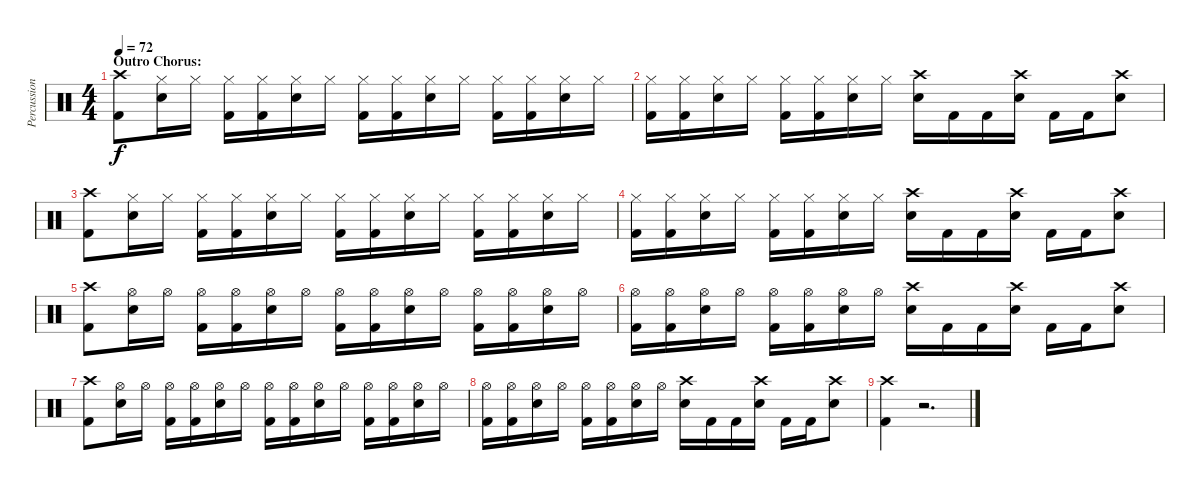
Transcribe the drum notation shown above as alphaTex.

\track ("Percussion" "Percussion") {instrument percussion}
\staff {score}
\articulation defaults
\ts (4 4)
\section ("" "Outro Chorus:")
\tempo 72
\clef neutral
\ks c
("Crash high (hit)" "Kick (hit) 2").8{dy f} ("Hi-Hat (closed)" "Electric Snare (hit)").16 "Hi-Hat (closed)".16 ("Hi-Hat (closed)" "Kick (hit) 2").16 ("Hi-Hat (closed)" "Kick (hit) 2").16 ("Hi-Hat (closed)" "Electric Snare (hit)").16 "Hi-Hat (closed)".16 ("Hi-Hat (closed)" "Kick (hit) 2").16 ("Hi-Hat (closed)" "Kick (hit) 2").16 ("Hi-Hat (closed)" "Electric Snare (hit)").16 "Hi-Hat (closed)".16 ("Hi-Hat (closed)" "Kick (hit) 2").16 ("Hi-Hat (closed)" "Kick (hit) 2").16 ("Hi-Hat (closed)" "Electric Snare (hit)").16 "Hi-Hat (closed)".16 |
("Hi-Hat (closed)" "Kick (hit) 2").16 ("Hi-Hat (closed)" "Kick (hit) 2").16 ("Hi-Hat (closed)" "Electric Snare (hit)").16 "Hi-Hat (closed)".16 ("Hi-Hat (closed)" "Kick (hit) 2").16 ("Hi-Hat (closed)" "Kick (hit) 2").16 ("Hi-Hat (closed)" "Electric Snare (hit)").16 "Hi-Hat (closed)".16 ("Crash high (hit)" "Electric Snare (hit)").16 "Kick (hit) 2".16 "Kick (hit) 2".16 ("Crash high (hit)" "Electric Snare (hit)").16 "Kick (hit) 2".16 "Kick (hit) 2".16 ("Crash high (hit)" "Electric Snare (hit)").8 |
("Crash high (hit)" "Kick (hit) 2").8 ("Hi-Hat (closed)" "Electric Snare (hit)").16 "Hi-Hat (closed)".16 ("Hi-Hat (closed)" "Kick (hit) 2").16 ("Hi-Hat (closed)" "Kick (hit) 2").16 ("Hi-Hat (closed)" "Electric Snare (hit)").16 "Hi-Hat (closed)".16 ("Hi-Hat (closed)" "Kick (hit) 2").16 ("Hi-Hat (closed)" "Kick (hit) 2").16 ("Hi-Hat (closed)" "Electric Snare (hit)").16 "Hi-Hat (closed)".16 ("Hi-Hat (closed)" "Kick (hit) 2").16 ("Hi-Hat (closed)" "Kick (hit) 2").16 ("Hi-Hat (closed)" "Electric Snare (hit)").16 "Hi-Hat (closed)".16 |
("Hi-Hat (closed)" "Kick (hit) 2").16 ("Hi-Hat (closed)" "Kick (hit) 2").16 ("Hi-Hat (closed)" "Electric Snare (hit)").16 "Hi-Hat (closed)".16 ("Hi-Hat (closed)" "Kick (hit) 2").16 ("Hi-Hat (closed)" "Kick (hit) 2").16 ("Hi-Hat (closed)" "Electric Snare (hit)").16 "Hi-Hat (closed)".16 ("Crash high (hit)" "Electric Snare (hit)").16 "Kick (hit) 2".16 "Kick (hit) 2".16 ("Crash high (hit)" "Electric Snare (hit)").16 "Kick (hit) 2".16 "Kick (hit) 2".16 ("Crash high (hit)" "Electric Snare (hit)").8 |
("Crash high (hit)" "Kick (hit) 2").8 ("Hi-Hat (open)" "Electric Snare (hit)").16 "Hi-Hat (open)".16 ("Hi-Hat (open)" "Kick (hit) 2").16 ("Hi-Hat (open)" "Kick (hit) 2").16 ("Hi-Hat (open)" "Electric Snare (hit)").16 "Hi-Hat (open)".16 ("Hi-Hat (open)" "Kick (hit) 2").16 ("Hi-Hat (open)" "Kick (hit) 2").16 ("Hi-Hat (open)" "Electric Snare (hit)").16 "Hi-Hat (open)".16 ("Hi-Hat (open)" "Kick (hit) 2").16 ("Hi-Hat (open)" "Kick (hit) 2").16 ("Hi-Hat (open)" "Electric Snare (hit)").16 "Hi-Hat (open)".16 |
("Hi-Hat (open)" "Kick (hit) 2").16 ("Hi-Hat (open)" "Kick (hit) 2").16 ("Hi-Hat (open)" "Electric Snare (hit)").16 "Hi-Hat (open)".16 ("Hi-Hat (open)" "Kick (hit) 2").16 ("Hi-Hat (open)" "Kick (hit) 2").16 ("Hi-Hat (open)" "Electric Snare (hit)").16 "Hi-Hat (open)".16 ("Crash high (hit)" "Electric Snare (hit)").16 "Kick (hit) 2".16 "Kick (hit) 2".16 ("Crash high (hit)" "Electric Snare (hit)").16 "Kick (hit) 2".16 "Kick (hit) 2".16 ("Crash high (hit)" "Electric Snare (hit)").8 |
("Crash high (hit)" "Kick (hit) 2").8 ("Hi-Hat (open)" "Electric Snare (hit)").16 "Hi-Hat (open)".16 ("Hi-Hat (open)" "Kick (hit) 2").16 ("Hi-Hat (open)" "Kick (hit) 2").16 ("Hi-Hat (open)" "Electric Snare (hit)").16 "Hi-Hat (open)".16 ("Hi-Hat (open)" "Kick (hit) 2").16 ("Hi-Hat (open)" "Kick (hit) 2").16 ("Hi-Hat (open)" "Electric Snare (hit)").16 "Hi-Hat (open)".16 ("Hi-Hat (open)" "Kick (hit) 2").16 ("Hi-Hat (open)" "Kick (hit) 2").16 ("Hi-Hat (open)" "Electric Snare (hit)").16 "Hi-Hat (open)".16 |
("Hi-Hat (open)" "Kick (hit) 2").16 ("Hi-Hat (open)" "Kick (hit) 2").16 ("Hi-Hat (open)" "Electric Snare (hit)").16 "Hi-Hat (open)".16 ("Hi-Hat (open)" "Kick (hit) 2").16 ("Hi-Hat (open)" "Kick (hit) 2").16 ("Hi-Hat (open)" "Electric Snare (hit)").16 "Hi-Hat (open)".16 ("Crash high (hit)" "Electric Snare (hit)").16 "Kick (hit) 2".16 "Kick (hit) 2".16 ("Crash high (hit)" "Electric Snare (hit)").16 "Kick (hit) 2".16 "Kick (hit) 2".16 ("Crash high (hit)" "Electric Snare (hit)").8 |
("Crash high (hit)" "Kick (hit) 2").4 r.2{d}
